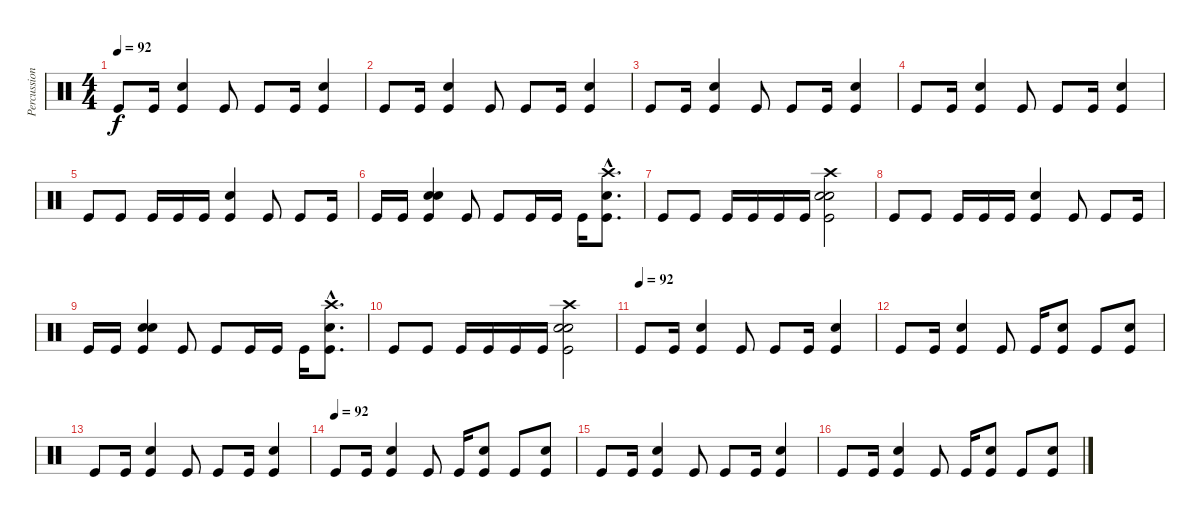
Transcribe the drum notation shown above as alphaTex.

\track ("Percussion" "Percussion") {instrument percussion}
\staff {score}
\articulation defaults
\ts (4 4)
\tempo 92
\clef neutral
\ks c "Kick (hit)".8{dy f} "Kick (hit)".16
("Kick (hit)" "Electric Snare (hit)").4 "Kick (hit)".8 "Kick (hit)".8 "Kick (hit)".16 ("Kick (hit)" "Electric Snare (hit)").4 |
"Kick (hit)".8 "Kick (hit)".16 ("Kick (hit)" "Electric Snare (hit)").4 "Kick (hit)".8 "Kick (hit)".8 "Kick (hit)".16 ("Kick (hit)" "Electric Snare (hit)").4 |
"Kick (hit)".8 "Kick (hit)".16 ("Kick (hit)" "Electric Snare (hit)").4 "Kick (hit)".8 "Kick (hit)".8 "Kick (hit)".16 ("Kick (hit)" "Electric Snare (hit)").4 |
"Kick (hit)".8 "Kick (hit)".16 ("Kick (hit)" "Electric Snare (hit)").4 "Kick (hit)".8 "Kick (hit)".8 "Kick (hit)".16 ("Kick (hit)" "Electric Snare (hit)").4 |
"Kick (hit)".8 "Kick (hit)".8 "Kick (hit)".16 "Kick (hit)".16 "Kick (hit)".16 ("Kick (hit)" "Electric Snare (hit)").4 "Kick (hit)".8 "Kick (hit)".8 "Kick (hit)".16 |
"Kick (hit)".16 "Kick (hit)".16 ("Kick (hit)" "Snare (hit) 2" "Electric Snare (hit)").4 "Kick (hit)".8 "Kick (hit)".8 "Kick (hit)".16 "Kick (hit)".16 "Kick (hit)".16 ("Kick (hit)"{hac} "Crash high (hit)"{hac} "Snare (hit) 2"{hac}).8{d} |
"Kick (hit)".8 "Kick (hit)".8 "Kick (hit)".16 "Kick (hit)".16 "Kick (hit)".16 "Kick (hit)".16 ("Kick (hit)" "Electric Snare (hit)" "Snare (hit) 2" "Crash high (hit)").2 |
"Kick (hit)".8 "Kick (hit)".8 "Kick (hit)".16 "Kick (hit)".16 "Kick (hit)".16 ("Kick (hit)" "Electric Snare (hit)").4 "Kick (hit)".8 "Kick (hit)".8 "Kick (hit)".16 |
"Kick (hit)".16 "Kick (hit)".16 ("Kick (hit)" "Snare (hit) 2" "Electric Snare (hit)").4 "Kick (hit)".8 "Kick (hit)".8 "Kick (hit)".16 "Kick (hit)".16 "Kick (hit)".16 ("Kick (hit)"{hac} "Crash high (hit)"{hac} "Snare (hit) 2"{hac}).8{d} |
"Kick (hit)".8 "Kick (hit)".8 "Kick (hit)".16 "Kick (hit)".16 "Kick (hit)".16 "Kick (hit)".16 ("Kick (hit)" "Electric Snare (hit)" "Snare (hit) 2" "Crash high (hit)").2 |
\tempo (92)
"Kick (hit)".8 "Kick (hit)".16 ("Kick (hit)" "Electric Snare (hit)").4 "Kick (hit)".8 "Kick (hit)".8 "Kick (hit)".16 ("Kick (hit)" "Electric Snare (hit)").4 |
"Kick (hit)".8 "Kick (hit)".16 ("Kick (hit)" "Electric Snare (hit)").4 "Kick (hit)".8 "Kick (hit)".16 ("Kick (hit)" "Electric Snare (hit)").8 "Kick (hit)".8 ("Kick (hit)" "Electric Snare (hit)").8 |
"Kick (hit)".8 "Kick (hit)".16 ("Kick (hit)" "Electric Snare (hit)").4 "Kick (hit)".8 "Kick (hit)".8 "Kick (hit)".16 ("Kick (hit)" "Electric Snare (hit)").4 |
\tempo (92)
"Kick (hit)".8 "Kick (hit)".16 ("Kick (hit)" "Electric Snare (hit)").4 "Kick (hit)".8 "Kick (hit)".16 ("Kick (hit)" "Electric Snare (hit)").8 "Kick (hit)".8 ("Kick (hit)" "Electric Snare (hit)").8 |
"Kick (hit)".8 "Kick (hit)".16 ("Kick (hit)" "Electric Snare (hit)").4 "Kick (hit)".8 "Kick (hit)".8 "Kick (hit)".16 ("Kick (hit)" "Electric Snare (hit)").4 |
"Kick (hit)".8 "Kick (hit)".16 ("Kick (hit)" "Electric Snare (hit)").4 "Kick (hit)".8 "Kick (hit)".16 ("Kick (hit)" "Electric Snare (hit)").8 "Kick (hit)".8 ("Kick (hit)" "Electric Snare (hit)").8
